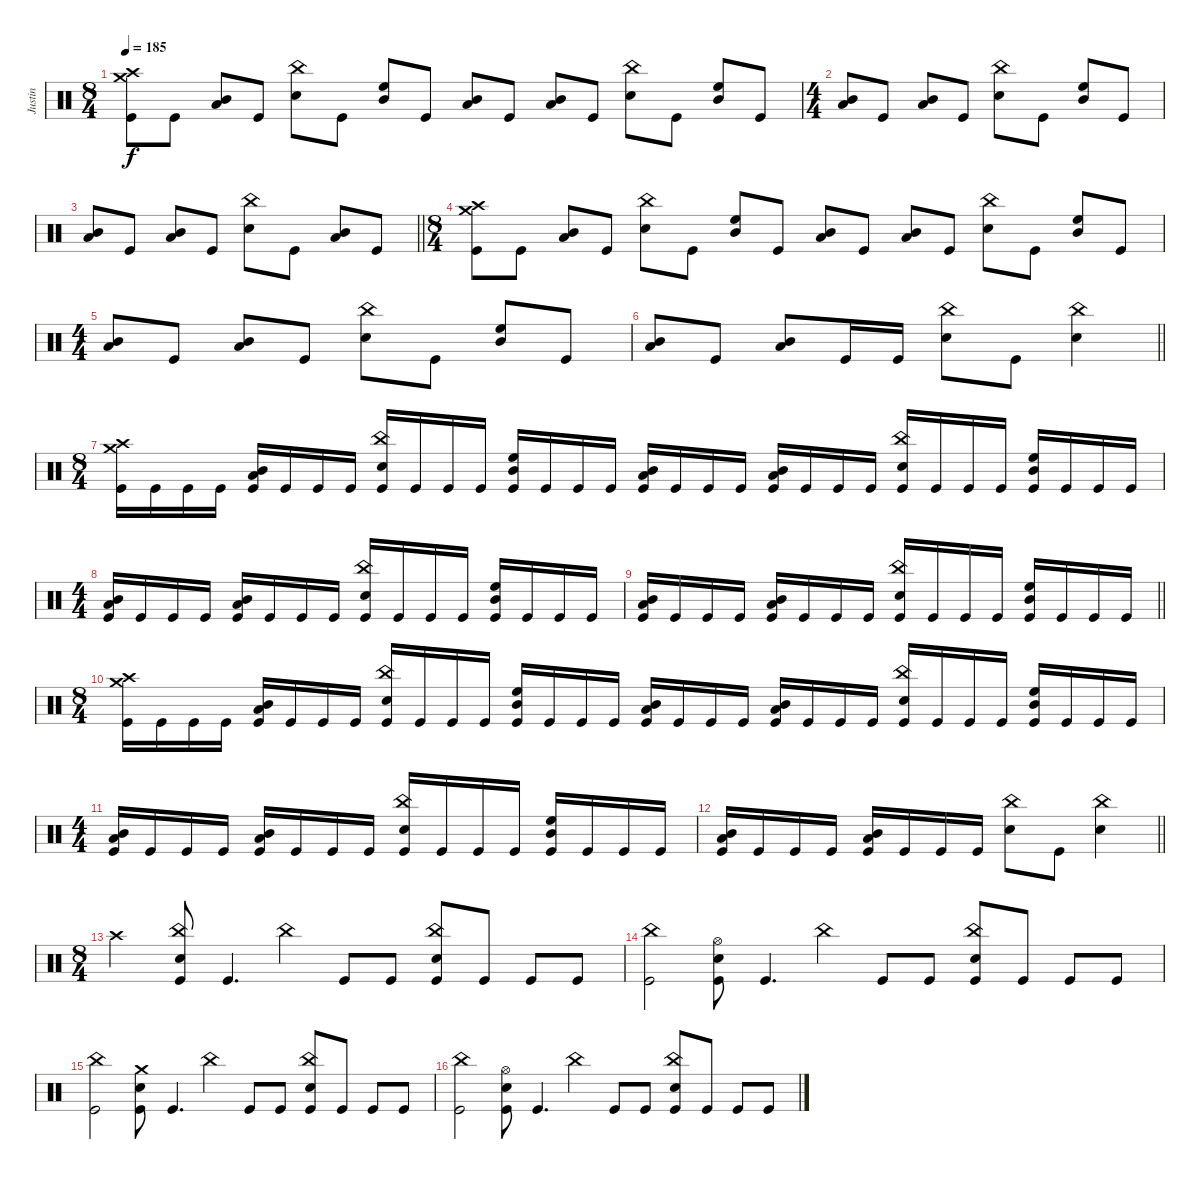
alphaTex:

\track ("Justin" "Justin") {instrument percussion}
\staff {score}
\articulation defaults
\ts (8 4)
\tempo 185
\clef neutral
\ks c
("Crash high (hit)" "Crash medium (hit)" "Kick (hit)").8{dy f} "Kick (hit)".8 ("Mid Tom (hit)" "Low Tom (hit)").8 "Kick (hit)".8 ("China (hit)" "Electric Snare (hit)").8 "Kick (hit)".8 ("High Floor Tom (hit)" "Mid Tom (hit)").8 "Kick (hit)".8 ("Mid Tom (hit)" "Low Tom (hit)").8 "Kick (hit)".8 ("Mid Tom (hit)" "Low Tom (hit)").8 "Kick (hit)".8 ("China (hit)" "Electric Snare (hit)").8 "Kick (hit)".8 ("High Floor Tom (hit)" "Mid Tom (hit)").8 "Kick (hit)".8 |
\ts (4 4)
("Mid Tom (hit)" "Low Tom (hit)").8 "Kick (hit)".8 ("Mid Tom (hit)" "Low Tom (hit)").8 "Kick (hit)".8 ("China (hit)" "Electric Snare (hit)").8 "Kick (hit)".8 ("High Floor Tom (hit)" "Mid Tom (hit)").8 "Kick (hit)".8 |
\barLineRight lightlight
("Mid Tom (hit)" "Low Tom (hit)").8 "Kick (hit)".8 ("Mid Tom (hit)" "Low Tom (hit)").8 "Kick (hit)".8 ("China (hit)" "Electric Snare (hit)").8 "Kick (hit)".8 ("Mid Tom (hit)" "Low Tom (hit)").8 "Kick (hit)".8 |
\ts (8 4)
("Crash high (hit)" "Crash medium (hit)" "Kick (hit)").8 "Kick (hit)".8 ("Mid Tom (hit)" "Low Tom (hit)").8 "Kick (hit)".8 ("China (hit)" "Electric Snare (hit)").8 "Kick (hit)".8 ("High Floor Tom (hit)" "Mid Tom (hit)").8 "Kick (hit)".8 ("Mid Tom (hit)" "Low Tom (hit)").8 "Kick (hit)".8 ("Mid Tom (hit)" "Low Tom (hit)").8 "Kick (hit)".8 ("China (hit)" "Electric Snare (hit)").8 "Kick (hit)".8 ("High Floor Tom (hit)" "Mid Tom (hit)").8 "Kick (hit)".8 |
\ts (4 4)
("Mid Tom (hit)" "Low Tom (hit)").8 "Kick (hit)".8 ("Mid Tom (hit)" "Low Tom (hit)").8 "Kick (hit)".8 ("China (hit)" "Electric Snare (hit)").8 "Kick (hit)".8 ("High Floor Tom (hit)" "Mid Tom (hit)").8 "Kick (hit)".8 |
\barLineRight lightlight
("Mid Tom (hit)" "Low Tom (hit)").8 "Kick (hit)".8 ("Mid Tom (hit)" "Low Tom (hit)").8 "Kick (hit)".16 "Kick (hit)".16 ("China (hit)" "Electric Snare (hit)").8 "Kick (hit)".8 ("China (hit)" "Electric Snare (hit)").4 |
\ts (8 4)
("Crash high (hit)" "Crash medium (hit)" "Kick (hit)").16 "Kick (hit)".16 "Kick (hit)".16 "Kick (hit)".16 ("Mid Tom (hit)" "Low Tom (hit)" "Kick (hit)").16 "Kick (hit)".16 "Kick (hit)".16 "Kick (hit)".16 ("China (hit)" "Electric Snare (hit)" "Kick (hit)").16 "Kick (hit)".16 "Kick (hit)".16 "Kick (hit)".16 ("High Floor Tom (hit)" "Mid Tom (hit)" "Kick (hit)").16 "Kick (hit)".16 "Kick (hit)".16 "Kick (hit)".16 ("Mid Tom (hit)" "Low Tom (hit)" "Kick (hit)").16 "Kick (hit)".16 "Kick (hit)".16 "Kick (hit)".16 ("Mid Tom (hit)" "Low Tom (hit)" "Kick (hit)").16 "Kick (hit)".16 "Kick (hit)".16 "Kick (hit)".16 ("China (hit)" "Electric Snare (hit)" "Kick (hit)").16 "Kick (hit)".16 "Kick (hit)".16 "Kick (hit)".16 ("High Floor Tom (hit)" "Mid Tom (hit)" "Kick (hit)").16 "Kick (hit)".16 "Kick (hit)".16 "Kick (hit)".16 |
\ts (4 4)
("Mid Tom (hit)" "Low Tom (hit)" "Kick (hit)").16 "Kick (hit)".16 "Kick (hit)".16 "Kick (hit)".16 ("Mid Tom (hit)" "Low Tom (hit)" "Kick (hit)").16 "Kick (hit)".16 "Kick (hit)".16 "Kick (hit)".16 ("China (hit)" "Electric Snare (hit)" "Kick (hit)").16 "Kick (hit)".16 "Kick (hit)".16 "Kick (hit)".16 ("High Floor Tom (hit)" "Mid Tom (hit)" "Kick (hit)").16 "Kick (hit)".16 "Kick (hit)".16 "Kick (hit)".16 |
\barLineRight lightlight
("Mid Tom (hit)" "Low Tom (hit)" "Kick (hit)").16 "Kick (hit)".16 "Kick (hit)".16 "Kick (hit)".16 ("Mid Tom (hit)" "Low Tom (hit)" "Kick (hit)").16 "Kick (hit)".16 "Kick (hit)".16 "Kick (hit)".16 ("China (hit)" "Electric Snare (hit)" "Kick (hit)").16 "Kick (hit)".16 "Kick (hit)".16 "Kick (hit)".16 ("High Floor Tom (hit)" "Mid Tom (hit)" "Kick (hit)").16 "Kick (hit)".16 "Kick (hit)".16 "Kick (hit)".16 |
\ts (8 4)
("Crash high (hit)" "Crash medium (hit)" "Kick (hit)").16 "Kick (hit)".16 "Kick (hit)".16 "Kick (hit)".16 ("Mid Tom (hit)" "Low Tom (hit)" "Kick (hit)").16 "Kick (hit)".16 "Kick (hit)".16 "Kick (hit)".16 ("China (hit)" "Electric Snare (hit)" "Kick (hit)").16 "Kick (hit)".16 "Kick (hit)".16 "Kick (hit)".16 ("High Floor Tom (hit)" "Mid Tom (hit)" "Kick (hit)").16 "Kick (hit)".16 "Kick (hit)".16 "Kick (hit)".16 ("Mid Tom (hit)" "Low Tom (hit)" "Kick (hit)").16 "Kick (hit)".16 "Kick (hit)".16 "Kick (hit)".16 ("Mid Tom (hit)" "Low Tom (hit)" "Kick (hit)").16 "Kick (hit)".16 "Kick (hit)".16 "Kick (hit)".16 ("China (hit)" "Electric Snare (hit)" "Kick (hit)").16 "Kick (hit)".16 "Kick (hit)".16 "Kick (hit)".16 ("High Floor Tom (hit)" "Mid Tom (hit)" "Kick (hit)").16 "Kick (hit)".16 "Kick (hit)".16 "Kick (hit)".16 |
\ts (4 4)
("Mid Tom (hit)" "Low Tom (hit)" "Kick (hit)").16 "Kick (hit)".16 "Kick (hit)".16 "Kick (hit)".16 ("Mid Tom (hit)" "Low Tom (hit)" "Kick (hit)").16 "Kick (hit)".16 "Kick (hit)".16 "Kick (hit)".16 ("China (hit)" "Electric Snare (hit)" "Kick (hit)").16 "Kick (hit)".16 "Kick (hit)".16 "Kick (hit)".16 ("High Floor Tom (hit)" "Mid Tom (hit)" "Kick (hit)").16 "Kick (hit)".16 "Kick (hit)".16 "Kick (hit)".16 |
\barLineRight lightlight
("Mid Tom (hit)" "Low Tom (hit)" "Kick (hit)").16 "Kick (hit)".16 "Kick (hit)".16 "Kick (hit)".16 ("Mid Tom (hit)" "Low Tom (hit)" "Kick (hit)").16 "Kick (hit)".16 "Kick (hit)".16 "Kick (hit)".16 ("China (hit)" "Electric Snare (hit)").8 "Kick (hit)".8 ("China (hit)" "Electric Snare (hit)").4 |
\ts (8 4)
"Crash high (hit)".2 ("China (hit)" "Electric Snare (hit)" "Kick (hit)").8 "Kick (hit)".4{d} "China (hit)".4 "Kick (hit)".8 "Kick (hit)".8 ("China (hit)" "Electric Snare (hit)" "Kick (hit)").8 "Kick (hit)".8 "Kick (hit)".8 "Kick (hit)".8 |
("China (hit)" "Kick (hit)").2 ("Hi-Hat (open)" "Electric Snare (hit)" "Kick (hit)").8 "Kick (hit)".4{d} "China (hit)".4 "Kick (hit)".8 "Kick (hit)".8 ("China (hit)" "Electric Snare (hit)" "Kick (hit)").8 "Kick (hit)".8 "Kick (hit)".8 "Kick (hit)".8 |
("China (hit)" "Kick (hit)").2 ("Crash medium (hit)" "Electric Snare (hit)" "Kick (hit)").8 "Kick (hit)".4{d} "China (hit)".4 "Kick (hit)".8 "Kick (hit)".8 ("China (hit)" "Electric Snare (hit)" "Kick (hit)").8 "Kick (hit)".8 "Kick (hit)".8 "Kick (hit)".8 |
("China (hit)" "Kick (hit)").2 ("Hi-Hat (open)" "Electric Snare (hit)" "Kick (hit)").8 "Kick (hit)".4{d} "China (hit)".4 "Kick (hit)".8 "Kick (hit)".8 ("China (hit)" "Electric Snare (hit)" "Kick (hit)").8 "Kick (hit)".8 "Kick (hit)".8 "Kick (hit)".8
